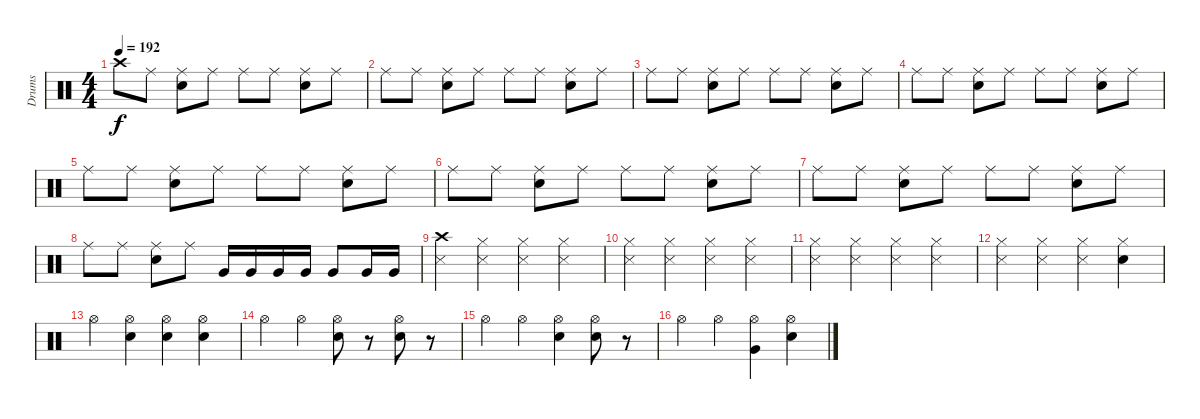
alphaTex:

\track ("Drums" "Drums") {instrument percussion}
\staff {score}
\articulation defaults
\ts (4 4)
\tempo 192
\clef neutral
\ks c "Crash high (hit)".8{dy f} "Ride (middle)".8
("Ride (middle)" "Snare (hit) 2").8 "Ride (middle)".8 "Ride (middle)".8 "Ride (middle)".8 ("Ride (middle)" "Snare (hit) 2").8 "Ride (middle)".8 |
"Ride (middle)".8 "Ride (middle)".8 ("Ride (middle)" "Snare (hit) 2").8 "Ride (middle)".8 "Ride (middle)".8 "Ride (middle)".8 ("Ride (middle)" "Snare (hit) 2").8 "Ride (middle)".8 |
"Ride (middle)".8 "Ride (middle)".8 ("Ride (middle)" "Snare (hit) 2").8 "Ride (middle)".8 "Ride (middle)".8 "Ride (middle)".8 ("Ride (middle)" "Snare (hit) 2").8 "Ride (middle)".8 |
"Ride (middle)".8 "Ride (middle)".8 ("Ride (middle)" "Snare (hit) 2").8 "Ride (middle)".8 "Ride (middle)".8 "Ride (middle)".8 ("Ride (middle)" "Snare (hit) 2").8 "Ride (middle)".8 |
"Ride (middle)".8 "Ride (middle)".8 ("Ride (middle)" "Snare (hit) 2").8 "Ride (middle)".8 "Ride (middle)".8 "Ride (middle)".8 ("Ride (middle)" "Snare (hit) 2").8 "Ride (middle)".8 |
"Ride (middle)".8 "Ride (middle)".8 ("Ride (middle)" "Snare (hit) 2").8 "Ride (middle)".8 "Ride (middle)".8 "Ride (middle)".8 ("Ride (middle)" "Snare (hit) 2").8 "Ride (middle)".8 |
"Ride (middle)".8 "Ride (middle)".8 ("Ride (middle)" "Snare (hit) 2").8 "Ride (middle)".8 "Ride (middle)".8 "Ride (middle)".8 ("Ride (middle)" "Snare (hit) 2").8 "Ride (middle)".8 |
"Ride (middle)".8 "Ride (middle)".8 ("Ride (middle)" "Snare (hit) 2").8 "Ride (middle)".8 "Very Low Tom (hit)".16 "Very Low Tom (hit)".16 "Very Low Tom (hit)".16 "Very Low Tom (hit)".16 "Very Low Tom (hit)".8 "Very Low Tom (hit)".16 "Very Low Tom (hit)".16 |
("Crash high (hit)" "Snare (side stick) 3").4 ("Hi-Hat (closed)" "Snare (side stick) 3").4 ("Hi-Hat (closed)" "Snare (side stick) 3").4 ("Hi-Hat (closed)" "Snare (side stick) 3").4 |
("Hi-Hat (closed)" "Snare (side stick) 3").4 ("Hi-Hat (closed)" "Snare (side stick) 3").4 ("Hi-Hat (closed)" "Snare (side stick) 3").4 ("Hi-Hat (closed)" "Snare (side stick) 3").4 |
("Hi-Hat (closed)" "Snare (side stick) 3").4 ("Hi-Hat (closed)" "Snare (side stick) 3").4 ("Hi-Hat (closed)" "Snare (side stick) 3").4 ("Hi-Hat (closed)" "Snare (side stick) 3").4 |
("Hi-Hat (closed)" "Snare (side stick) 3").4 ("Hi-Hat (closed)" "Snare (side stick) 3").4 ("Hi-Hat (closed)" "Snare (side stick) 3").4 ("Hi-Hat (closed)" "Snare (hit) 2").4 |
"Hi-Hat (open)".4 ("Hi-Hat (open)" "Snare (hit) 2").4 ("Hi-Hat (open)" "Snare (hit) 2").4 ("Hi-Hat (open)" "Snare (hit) 2").4 |
"Hi-Hat (open)".4 "Hi-Hat (open)".4 ("Hi-Hat (open)" "Snare (hit) 2").8 r.8 ("Hi-Hat (open)" "Snare (hit) 2").8 r.8 |
"Hi-Hat (open)".4 "Hi-Hat (open)".4 ("Hi-Hat (open)" "Snare (hit) 2").4 ("Hi-Hat (open)" "Snare (hit) 2").8 r.8 |
"Hi-Hat (open)".4 "Hi-Hat (open)".4 ("Hi-Hat (open)" "Very Low Tom (hit)").4 ("Hi-Hat (open)" "Snare (hit) 2").4
